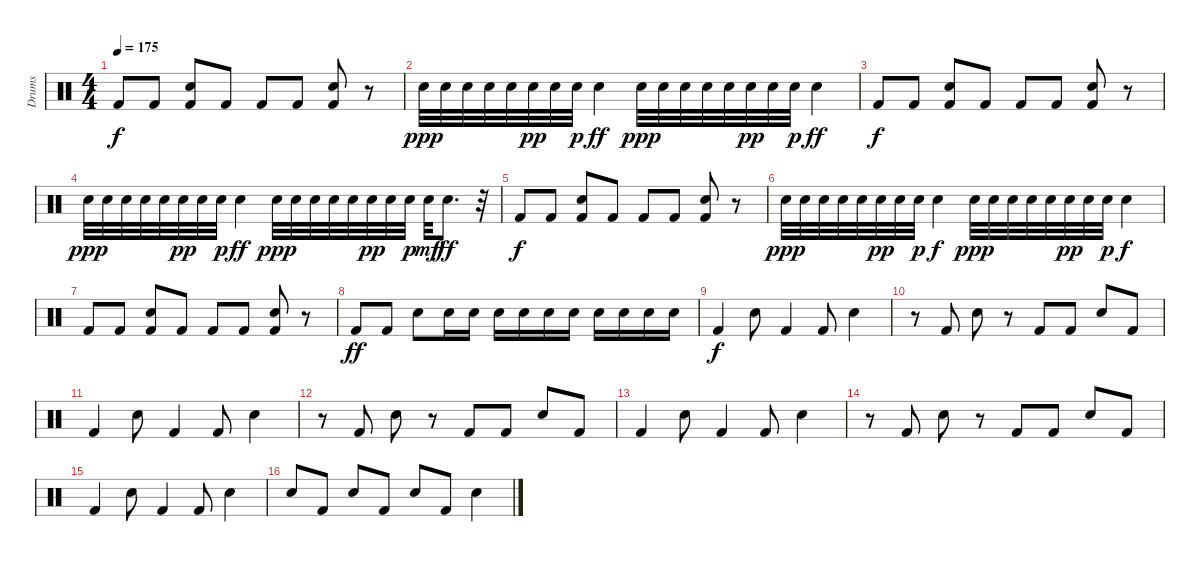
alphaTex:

\track ("Drums" "Drums") {instrument percussion}
\staff {score}
\articulation defaults
\ts (4 4)
\tempo 175
\clef neutral
\ks c "Kick (hit) 2".8{dy f} "Kick (hit) 2".8
("Snare (hit) 2" "Kick (hit) 2").8 "Kick (hit) 2".8 "Kick (hit) 2".8 "Kick (hit) 2".8 ("Snare (hit) 2" "Kick (hit) 2").8 r.8 |
"Snare (hit) 2".32{dy ppp} "Snare (hit) 2".32 "Snare (hit) 2".32 "Snare (hit) 2".32 "Snare (hit) 2".32 "Snare (hit) 2".32{dy pp} "Snare (hit) 2".32 "Snare (hit) 2".32{dy p} "Snare (hit) 2".4{dy ff} "Snare (hit) 2".32{dy ppp} "Snare (hit) 2".32 "Snare (hit) 2".32 "Snare (hit) 2".32 "Snare (hit) 2".32 "Snare (hit) 2".32{dy pp} "Snare (hit) 2".32 "Snare (hit) 2".32{dy p} "Snare (hit) 2".4{dy ff} |
"Kick (hit) 2".8{dy f} "Kick (hit) 2".8 ("Snare (hit) 2" "Kick (hit) 2").8 "Kick (hit) 2".8 "Kick (hit) 2".8 "Kick (hit) 2".8 ("Snare (hit) 2" "Kick (hit) 2").8 r.8 |
"Snare (hit) 2".32{dy ppp} "Snare (hit) 2".32 "Snare (hit) 2".32 "Snare (hit) 2".32 "Snare (hit) 2".32 "Snare (hit) 2".32{dy pp} "Snare (hit) 2".32 "Snare (hit) 2".32{dy p} "Snare (hit) 2".4{dy ff} "Snare (hit) 2".32{dy ppp} "Snare (hit) 2".32 "Snare (hit) 2".32 "Snare (hit) 2".32 "Snare (hit) 2".32 "Snare (hit) 2".32{dy pp} "Snare (hit) 2".32 "Snare (hit) 2".32{dy p} "Snare (hit) 2".32{dy mf} "Snare (hit) 2".8{d dy ff} r.32 |
"Kick (hit) 2".8{dy f} "Kick (hit) 2".8 ("Snare (hit) 2" "Kick (hit) 2").8 "Kick (hit) 2".8 "Kick (hit) 2".8 "Kick (hit) 2".8 ("Snare (hit) 2" "Kick (hit) 2").8 r.8 |
"Snare (hit) 2".32{dy ppp} "Snare (hit) 2".32 "Snare (hit) 2".32 "Snare (hit) 2".32 "Snare (hit) 2".32 "Snare (hit) 2".32{dy pp} "Snare (hit) 2".32 "Snare (hit) 2".32{dy p} "Snare (hit) 2".4{dy f} "Snare (hit) 2".32{dy ppp} "Snare (hit) 2".32 "Snare (hit) 2".32 "Snare (hit) 2".32 "Snare (hit) 2".32 "Snare (hit) 2".32{dy pp} "Snare (hit) 2".32 "Snare (hit) 2".32{dy p} "Snare (hit) 2".4{dy f} |
"Kick (hit) 2".8 "Kick (hit) 2".8 ("Snare (hit) 2" "Kick (hit) 2").8 "Kick (hit) 2".8 "Kick (hit) 2".8 "Kick (hit) 2".8 ("Snare (hit) 2" "Kick (hit) 2").8 r.8 |
"Kick (hit) 2".8{dy ff} "Kick (hit) 2".8 "Snare (hit) 2".8 "Snare (hit) 2".16 "Snare (hit) 2".16 "Snare (hit) 2".16 "Snare (hit) 2".16 "Snare (hit) 2".16 "Snare (hit) 2".16 "Snare (hit) 2".16 "Snare (hit) 2".16 "Snare (hit) 2".16 "Snare (hit) 2".16 |
"Kick (hit) 2".4{dy f volume 9} "Snare (hit) 2".8 "Kick (hit) 2".4 "Kick (hit) 2".8 "Snare (hit) 2".4 |
r.8 "Kick (hit) 2".8 "Snare (hit) 2".8 r.8 "Kick (hit) 2".8 "Kick (hit) 2".8 "Snare (hit) 2".8 "Kick (hit) 2".8 |
"Kick (hit) 2".4 "Snare (hit) 2".8 "Kick (hit) 2".4 "Kick (hit) 2".8 "Snare (hit) 2".4 |
r.8 "Kick (hit) 2".8 "Snare (hit) 2".8 r.8 "Kick (hit) 2".8 "Kick (hit) 2".8 "Snare (hit) 2".8 "Kick (hit) 2".8 |
"Kick (hit) 2".4 "Snare (hit) 2".8 "Kick (hit) 2".4 "Kick (hit) 2".8 "Snare (hit) 2".4 |
r.8 "Kick (hit) 2".8 "Snare (hit) 2".8 r.8 "Kick (hit) 2".8 "Kick (hit) 2".8 "Snare (hit) 2".8 "Kick (hit) 2".8 |
"Kick (hit) 2".4 "Snare (hit) 2".8 "Kick (hit) 2".4 "Kick (hit) 2".8 "Snare (hit) 2".4 |
"Snare (hit) 2".8 "Kick (hit) 2".8 "Snare (hit) 2".8 "Kick (hit) 2".8 "Snare (hit) 2".8 "Kick (hit) 2".8 "Snare (hit) 2".4
